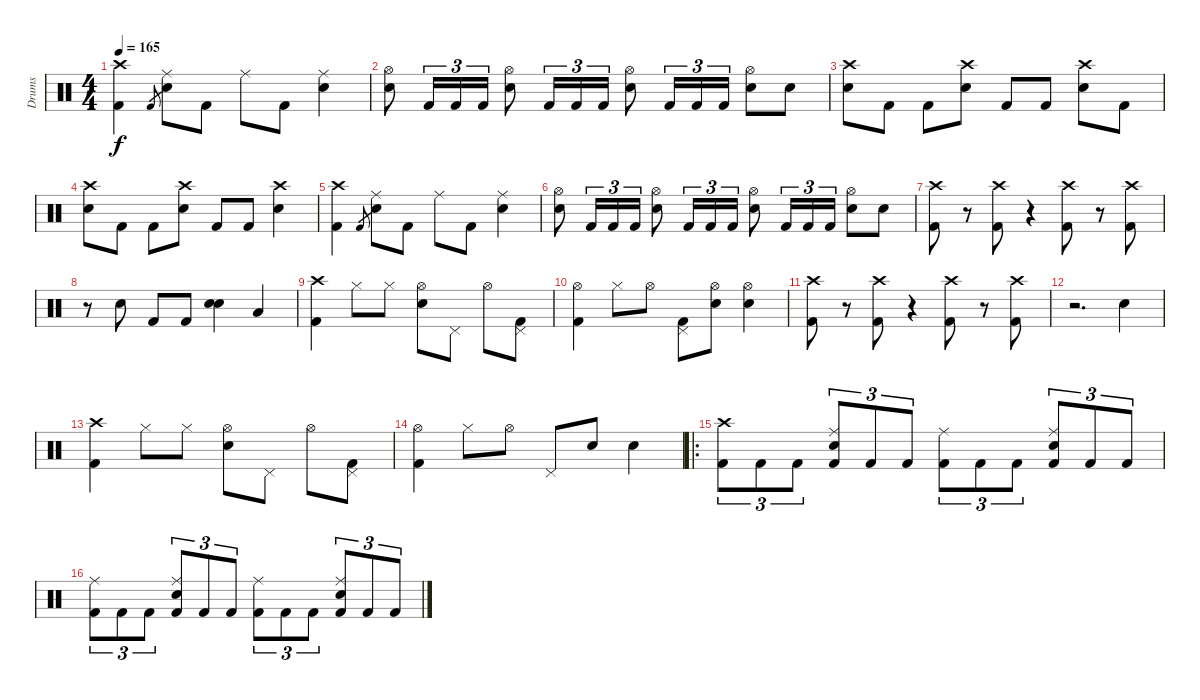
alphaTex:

\track ("Drums" "Drums") {instrument percussion}
\staff {score}
\articulation defaults
\ts (4 4)
\tempo 165
\clef neutral
\ks c
("Crash high (hit)" "Kick (hit) 2").4{dy f} "Kick (hit) 2".8{gr} ("Ride (middle)" "Electric Snare (hit)").8 "Kick (hit) 2".8 "Ride (middle)".8 "Kick (hit) 2".8 ("Ride (middle)" "Electric Snare (hit)").4 |
("Hi-Hat (open)" "Electric Snare (hit)").8 "Kick (hit) 2".16{tu (3 2)} "Kick (hit) 2".16{tu (3 2)} "Kick (hit) 2".16{tu (3 2)} ("Hi-Hat (open)" "Electric Snare (hit)").8 "Kick (hit) 2".16{tu (3 2)} "Kick (hit) 2".16{tu (3 2)} "Kick (hit) 2".16{tu (3 2)} ("Hi-Hat (open)" "Electric Snare (hit)").8 "Kick (hit) 2".16{tu (3 2)} "Kick (hit) 2".16{tu (3 2)} "Kick (hit) 2".16{tu (3 2)} ("Hi-Hat (open)" "Electric Snare (hit)").8 "Electric Snare (hit)".8 |
("Crash high (hit)" "Electric Snare (hit)").8 "Kick (hit) 2".8 "Kick (hit) 2".8 ("Crash high (hit)" "Electric Snare (hit)").8 "Kick (hit) 2".8 "Kick (hit) 2".8 ("Crash high (hit)" "Electric Snare (hit)").8 "Kick (hit) 2".8 |
("Crash high (hit)" "Electric Snare (hit)").8 "Kick (hit) 2".8 "Kick (hit) 2".8 ("Crash high (hit)" "Electric Snare (hit)").8 "Kick (hit) 2".8 "Kick (hit) 2".8 ("Crash high (hit)" "Electric Snare (hit)").4 |
("Crash high (hit)" "Kick (hit) 2").4 "Kick (hit) 2".8{gr} ("Ride (middle)" "Electric Snare (hit)").8 "Kick (hit) 2".8 "Ride (middle)".8 "Kick (hit) 2".8 ("Ride (middle)" "Electric Snare (hit)").4 |
("Hi-Hat (open)" "Electric Snare (hit)").8 "Kick (hit) 2".16{tu (3 2)} "Kick (hit) 2".16{tu (3 2)} "Kick (hit) 2".16{tu (3 2)} ("Hi-Hat (open)" "Electric Snare (hit)").8 "Kick (hit) 2".16{tu (3 2)} "Kick (hit) 2".16{tu (3 2)} "Kick (hit) 2".16{tu (3 2)} ("Hi-Hat (open)" "Electric Snare (hit)").8 "Kick (hit) 2".16{tu (3 2)} "Kick (hit) 2".16{tu (3 2)} "Kick (hit) 2".16{tu (3 2)} ("Hi-Hat (open)" "Electric Snare (hit)").8 "Electric Snare (hit)".8 |
("Crash high (hit)" "Kick (hit) 2").8 r.8{volume 0} ("Crash high (hit)" "Kick (hit) 2").8{volume 13} r.4{volume 0} ("Crash high (hit)" "Kick (hit) 2").8{volume 13} r.8{volume 0} ("Crash high (hit)" "Kick (hit) 2").8{volume 13} |
r.8 "Electric Snare (hit)".8 "Kick (hit) 2".8 "Kick (hit) 2".8 ("Electric Snare (hit)" "Electric Snare (hit)").4 "Low Tom (hit)".4 |
("Crash high (hit)" "Kick (hit) 2").4 "Hi-Hat (closed)".8 "Hi-Hat (closed)".8 ("Hi-Hat (open)" "Electric Snare (hit)").8 "Pedal Hi-Hat (hit)".8 "Hi-Hat (open)".8 ("Pedal Hi-Hat (hit)" "Kick (hit) 2").8 |
("Hi-Hat (open)" "Kick (hit) 2").4 "Hi-Hat (closed)".8 "Hi-Hat (open)".8 ("Pedal Hi-Hat (hit)" "Kick (hit) 2").8 ("Hi-Hat (open)" "Electric Snare (hit)").8 ("Hi-Hat (open)" "Electric Snare (hit)").4 |
("Crash high (hit)" "Kick (hit) 2").8 r.8{volume 0} ("Crash high (hit)" "Kick (hit) 2").8{volume 13} r.4{volume 0} ("Crash high (hit)" "Kick (hit) 2").8{volume 13} r.8{volume 0} ("Crash high (hit)" "Kick (hit) 2").8{volume 13} |
r.2{d volume 0} "Electric Snare (hit)".4{volume 13} |
("Crash high (hit)" "Kick (hit) 2").4 "Hi-Hat (closed)".8 "Hi-Hat (closed)".8 ("Hi-Hat (open)" "Electric Snare (hit)").8 "Pedal Hi-Hat (hit)".8 "Hi-Hat (open)".8 ("Pedal Hi-Hat (hit)" "Kick (hit) 2").8 |
("Hi-Hat (open)" "Kick (hit) 2").4 "Hi-Hat (closed)".8 "Hi-Hat (open)".8 "Pedal Hi-Hat (hit)".8 "Electric Snare (hit)".8 "Electric Snare (hit)".4 |
\ro
("Crash high (hit)" "Kick (hit) 2").8{tu (3 2)} "Kick (hit) 2".8{tu (3 2)} "Kick (hit) 2".8{tu (3 2)} ("Ride (middle)" "Electric Snare (hit)" "Kick (hit) 2").8{tu (3 2)} "Kick (hit) 2".8{tu (3 2)} "Kick (hit) 2".8{tu (3 2)} ("Ride (middle)" "Kick (hit) 2").8{tu (3 2)} "Kick (hit) 2".8{tu (3 2)} "Kick (hit) 2".8{tu (3 2)} ("Ride (middle)" "Electric Snare (hit)" "Kick (hit) 2").8{tu (3 2)} "Kick (hit) 2".8{tu (3 2)} "Kick (hit) 2".8{tu (3 2)} |
("Ride (middle)" "Kick (hit) 2").8{tu (3 2)} "Kick (hit) 2".8{tu (3 2)} "Kick (hit) 2".8{tu (3 2)} ("Ride (middle)" "Electric Snare (hit)" "Kick (hit) 2").8{tu (3 2)} "Kick (hit) 2".8{tu (3 2)} "Kick (hit) 2".8{tu (3 2)} ("Ride (middle)" "Kick (hit) 2").8{tu (3 2)} "Kick (hit) 2".8{tu (3 2)} "Kick (hit) 2".8{tu (3 2)} ("Ride (middle)" "Electric Snare (hit)" "Kick (hit) 2").8{tu (3 2)} "Kick (hit) 2".8{tu (3 2)} "Kick (hit) 2".8{tu (3 2)}
